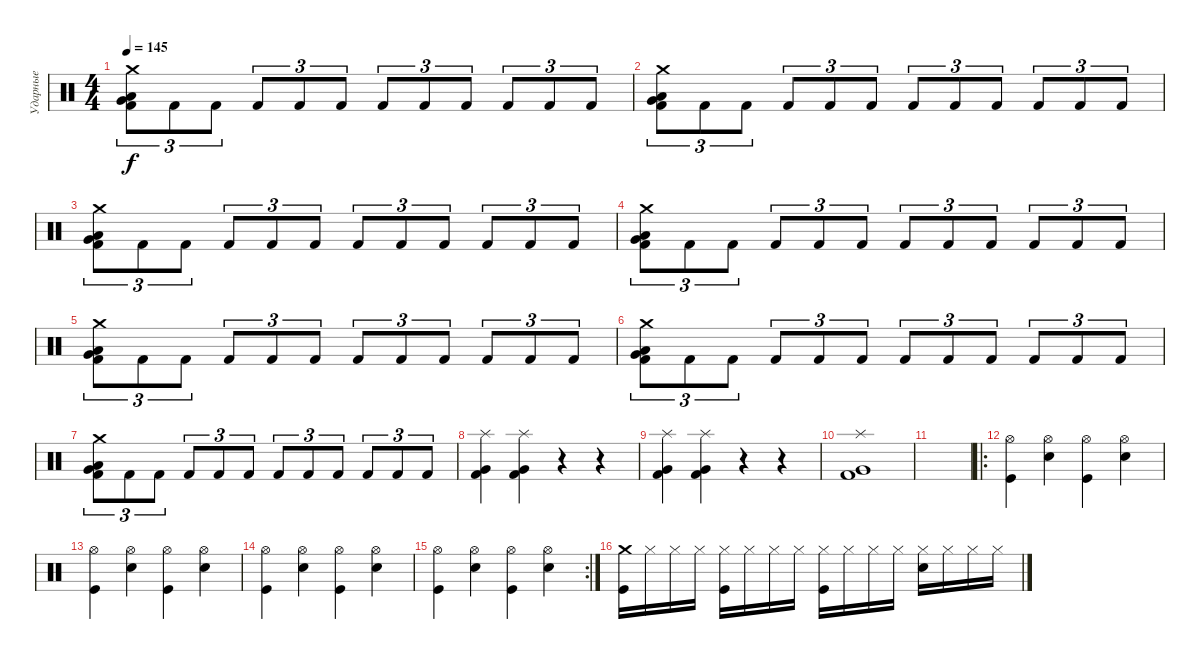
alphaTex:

\track ("Ударные" "Ударные") {instrument percussion}
\staff {score}
\articulation defaults
\ts (4 4)
\tempo 145
\clef neutral
\ks c
("Crash medium (hit)" "Low Floor Tom (hit)" "Kick (hit) 2" "Very Low Tom (hit)").8{tu (3 2) dy f} "Kick (hit) 2".8{tu (3 2)} "Kick (hit) 2".8{tu (3 2)} "Kick (hit) 2".8{tu (3 2)} "Kick (hit) 2".8{tu (3 2)} "Kick (hit) 2".8{tu (3 2)} "Kick (hit) 2".8{tu (3 2)} "Kick (hit) 2".8{tu (3 2)} "Kick (hit) 2".8{tu (3 2)} "Kick (hit) 2".8{tu (3 2)} "Kick (hit) 2".8{tu (3 2)} "Kick (hit) 2".8{tu (3 2)} |
("Crash medium (hit)" "Low Floor Tom (hit)" "Kick (hit) 2" "Very Low Tom (hit)").8{tu (3 2)} "Kick (hit) 2".8{tu (3 2)} "Kick (hit) 2".8{tu (3 2)} "Kick (hit) 2".8{tu (3 2)} "Kick (hit) 2".8{tu (3 2)} "Kick (hit) 2".8{tu (3 2)} "Kick (hit) 2".8{tu (3 2)} "Kick (hit) 2".8{tu (3 2)} "Kick (hit) 2".8{tu (3 2)} "Kick (hit) 2".8{tu (3 2)} "Kick (hit) 2".8{tu (3 2)} "Kick (hit) 2".8{tu (3 2)} |
("Crash medium (hit)" "Low Floor Tom (hit)" "Kick (hit) 2" "Very Low Tom (hit)").8{tu (3 2)} "Kick (hit) 2".8{tu (3 2)} "Kick (hit) 2".8{tu (3 2)} "Kick (hit) 2".8{tu (3 2)} "Kick (hit) 2".8{tu (3 2)} "Kick (hit) 2".8{tu (3 2)} "Kick (hit) 2".8{tu (3 2)} "Kick (hit) 2".8{tu (3 2)} "Kick (hit) 2".8{tu (3 2)} "Kick (hit) 2".8{tu (3 2)} "Kick (hit) 2".8{tu (3 2)} "Kick (hit) 2".8{tu (3 2)} |
("Crash medium (hit)" "Low Floor Tom (hit)" "Kick (hit) 2" "Very Low Tom (hit)").8{tu (3 2)} "Kick (hit) 2".8{tu (3 2)} "Kick (hit) 2".8{tu (3 2)} "Kick (hit) 2".8{tu (3 2)} "Kick (hit) 2".8{tu (3 2)} "Kick (hit) 2".8{tu (3 2)} "Kick (hit) 2".8{tu (3 2)} "Kick (hit) 2".8{tu (3 2)} "Kick (hit) 2".8{tu (3 2)} "Kick (hit) 2".8{tu (3 2)} "Kick (hit) 2".8{tu (3 2)} "Kick (hit) 2".8{tu (3 2)} |
("Crash medium (hit)" "Low Floor Tom (hit)" "Kick (hit) 2" "Very Low Tom (hit)").8{tu (3 2)} "Kick (hit) 2".8{tu (3 2)} "Kick (hit) 2".8{tu (3 2)} "Kick (hit) 2".8{tu (3 2)} "Kick (hit) 2".8{tu (3 2)} "Kick (hit) 2".8{tu (3 2)} "Kick (hit) 2".8{tu (3 2)} "Kick (hit) 2".8{tu (3 2)} "Kick (hit) 2".8{tu (3 2)} "Kick (hit) 2".8{tu (3 2)} "Kick (hit) 2".8{tu (3 2)} "Kick (hit) 2".8{tu (3 2)} |
("Crash medium (hit)" "Low Floor Tom (hit)" "Kick (hit) 2" "Very Low Tom (hit)").8{tu (3 2)} "Kick (hit) 2".8{tu (3 2)} "Kick (hit) 2".8{tu (3 2)} "Kick (hit) 2".8{tu (3 2)} "Kick (hit) 2".8{tu (3 2)} "Kick (hit) 2".8{tu (3 2)} "Kick (hit) 2".8{tu (3 2)} "Kick (hit) 2".8{tu (3 2)} "Kick (hit) 2".8{tu (3 2)} "Kick (hit) 2".8{tu (3 2)} "Kick (hit) 2".8{tu (3 2)} "Kick (hit) 2".8{tu (3 2)} |
("Crash medium (hit)" "Low Floor Tom (hit)" "Kick (hit) 2" "Very Low Tom (hit)").8{tu (3 2)} "Kick (hit) 2".8{tu (3 2)} "Kick (hit) 2".8{tu (3 2)} "Kick (hit) 2".8{tu (3 2)} "Kick (hit) 2".8{tu (3 2)} "Kick (hit) 2".8{tu (3 2)} "Kick (hit) 2".8{tu (3 2)} "Kick (hit) 2".8{tu (3 2)} "Kick (hit) 2".8{tu (3 2)} "Kick (hit) 2".8{tu (3 2)} "Kick (hit) 2".8{tu (3 2)} "Kick (hit) 2".8{tu (3 2)} |
("Splash (hit)" "Very Low Tom (hit)" "Kick (hit) 2").4 ("Very Low Tom (hit)" "Kick (hit) 2" "Splash (hit)").4 r.4 r.4 |
("Splash (hit)" "Very Low Tom (hit)" "Kick (hit) 2").4 ("Very Low Tom (hit)" "Kick (hit) 2" "Splash (hit)").4 r.4 r.4 |
("Splash (hit)" "Very Low Tom (hit)" "Kick (hit) 2").1 |
|
\ro
("Kick (hit)" "Hi-Hat (open)").4 ("Electric Snare (hit)" "Hi-Hat (open)").4 ("Kick (hit)" "Hi-Hat (open)").4 ("Electric Snare (hit)" "Hi-Hat (open)").4 |
("Kick (hit)" "Hi-Hat (open)").4 ("Electric Snare (hit)" "Hi-Hat (open)").4 ("Kick (hit)" "Hi-Hat (open)").4 ("Electric Snare (hit)" "Hi-Hat (open)").4 |
("Kick (hit)" "Hi-Hat (open)").4 ("Electric Snare (hit)" "Hi-Hat (open)").4 ("Kick (hit)" "Hi-Hat (open)").4 ("Electric Snare (hit)" "Hi-Hat (open)").4 |
\rc 2
("Kick (hit)" "Hi-Hat (open)").4 ("Electric Snare (hit)" "Hi-Hat (open)").4 ("Kick (hit)" "Hi-Hat (open)").4 ("Electric Snare (hit)" "Hi-Hat (open)").4 |
("Kick (hit)" "Crash medium (hit)").16 "Hi-Hat (closed)".16 "Hi-Hat (closed)".16 "Hi-Hat (closed)".16 ("Kick (hit)" "Hi-Hat (closed)").16 "Hi-Hat (closed)".16 "Hi-Hat (closed)".16 "Hi-Hat (closed)".16 ("Kick (hit)" "Hi-Hat (closed)").16 "Hi-Hat (closed)".16 "Hi-Hat (closed)".16 "Hi-Hat (closed)".16 ("Electric Snare (hit)" "Hi-Hat (closed)").16 "Hi-Hat (closed)".16 "Hi-Hat (closed)".16 "Hi-Hat (closed)".16
